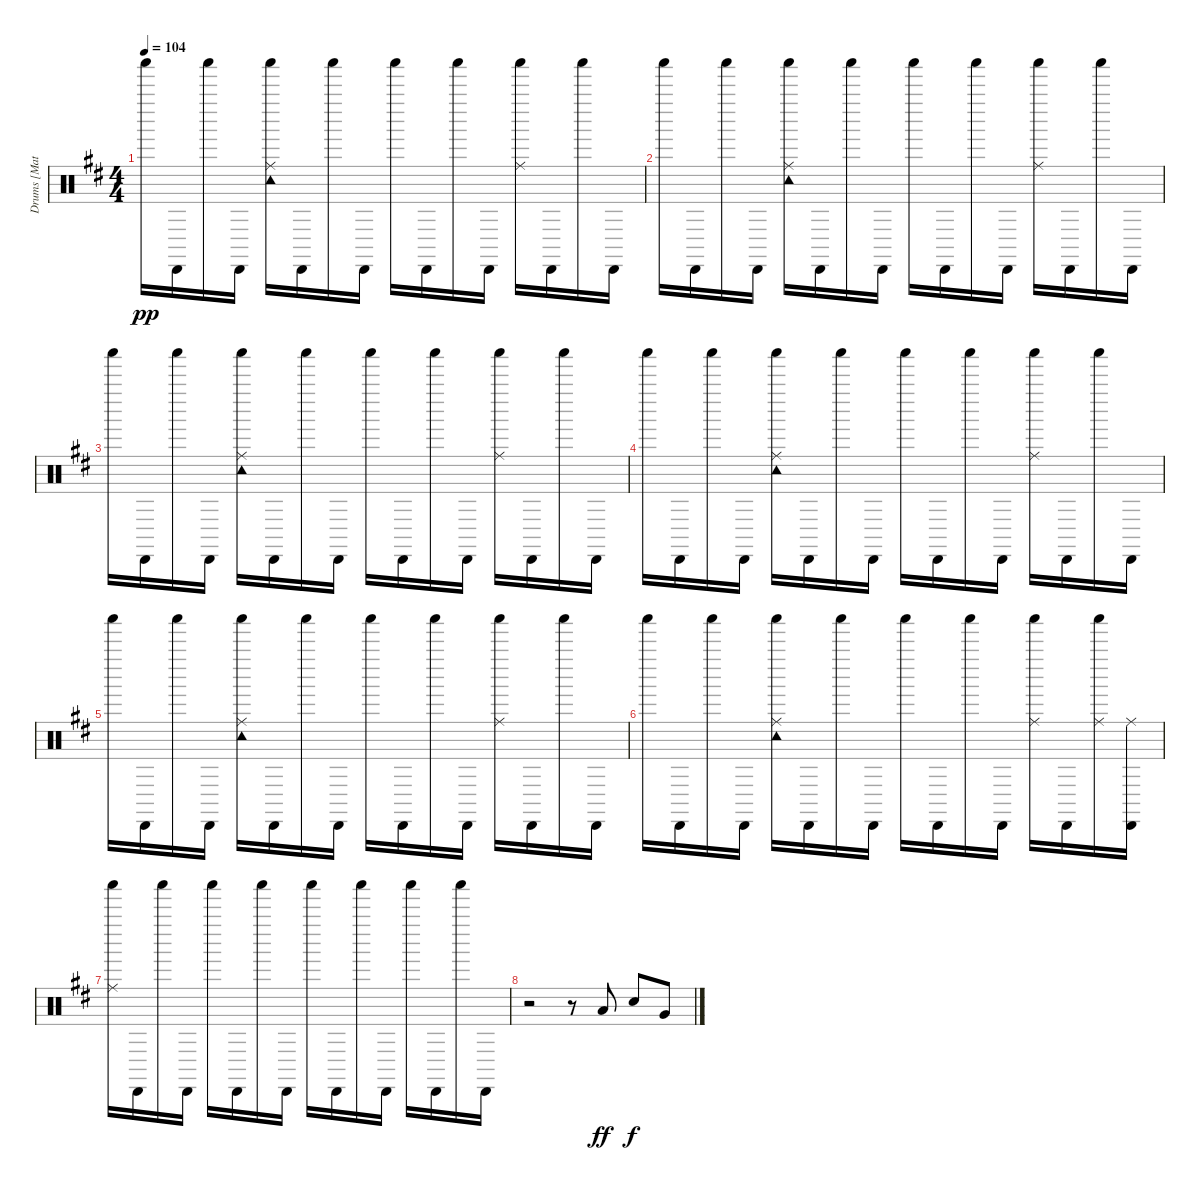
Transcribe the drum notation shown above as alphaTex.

\track ("Drums [Matt]" "Drums [Mat") {instrument percussion}
\staff {score}
\articulation defaults
\ts (4 4)
\tempo 104
\clef neutral
\ks d "Shaker (hit)".16{dy pp} "Cabasa (hit)".16 "Shaker (hit)".16 "Cabasa (hit)".16
("Ride (middle)" "Tambourine (hit)" "Shaker (hit)").16 "Cabasa (hit)".16 "Shaker (hit)".16 "Cabasa (hit)".16 "Shaker (hit)".16 "Cabasa (hit)".16 "Shaker (hit)".16 "Cabasa (hit)".16 ("Ride (middle)" "Shaker (hit)").16 "Cabasa (hit)".16 "Shaker (hit)".16 "Cabasa (hit)".16 |
"Shaker (hit)".16 "Cabasa (hit)".16 "Shaker (hit)".16 "Cabasa (hit)".16 ("Ride (middle)" "Tambourine (hit)" "Shaker (hit)").16 "Cabasa (hit)".16 "Shaker (hit)".16 "Cabasa (hit)".16 "Shaker (hit)".16 "Cabasa (hit)".16 "Shaker (hit)".16 "Cabasa (hit)".16 ("Ride (middle)" "Shaker (hit)").16 "Cabasa (hit)".16 "Shaker (hit)".16 "Cabasa (hit)".16 |
"Shaker (hit)".16 "Cabasa (hit)".16 "Shaker (hit)".16 "Cabasa (hit)".16 ("Ride (middle)" "Tambourine (hit)" "Shaker (hit)").16 "Cabasa (hit)".16 "Shaker (hit)".16 "Cabasa (hit)".16 "Shaker (hit)".16 "Cabasa (hit)".16 "Shaker (hit)".16 "Cabasa (hit)".16 ("Ride (middle)" "Shaker (hit)").16 "Cabasa (hit)".16 "Shaker (hit)".16 "Cabasa (hit)".16 |
"Shaker (hit)".16 "Cabasa (hit)".16 "Shaker (hit)".16 "Cabasa (hit)".16 ("Ride (middle)" "Tambourine (hit)" "Shaker (hit)").16 "Cabasa (hit)".16 "Shaker (hit)".16 "Cabasa (hit)".16 "Shaker (hit)".16 "Cabasa (hit)".16 "Shaker (hit)".16 "Cabasa (hit)".16 ("Ride (middle)" "Shaker (hit)").16 "Cabasa (hit)".16 "Shaker (hit)".16 "Cabasa (hit)".16 |
"Shaker (hit)".16 "Cabasa (hit)".16 "Shaker (hit)".16 "Cabasa (hit)".16 ("Ride (middle)" "Tambourine (hit)" "Shaker (hit)").16 "Cabasa (hit)".16 "Shaker (hit)".16 "Cabasa (hit)".16 "Shaker (hit)".16 "Cabasa (hit)".16 "Shaker (hit)".16 "Cabasa (hit)".16 ("Ride (middle)" "Shaker (hit)").16 "Cabasa (hit)".16 "Shaker (hit)".16 "Cabasa (hit)".16 |
"Shaker (hit)".16 "Cabasa (hit)".16 "Shaker (hit)".16 "Cabasa (hit)".16 ("Ride (middle)" "Tambourine (hit)" "Shaker (hit)").16 "Cabasa (hit)".16 "Shaker (hit)".16 "Cabasa (hit)".16 "Shaker (hit)".16 "Cabasa (hit)".16 "Shaker (hit)".16 "Cabasa (hit)".16 ("Ride (middle)" "Shaker (hit)").16 "Cabasa (hit)".16 ("Ride (middle)" "Shaker (hit)").16 ("Ride (middle)" "Cabasa (hit)").16 |
("Ride (middle)" "Shaker (hit)").16{volume 7} "Cabasa (hit)".16 "Shaker (hit)".16 "Cabasa (hit)".16 "Shaker (hit)".16 "Cabasa (hit)".16 "Shaker (hit)".16 "Cabasa (hit)".16 "Shaker (hit)".16 "Cabasa (hit)".16 "Shaker (hit)".16 "Cabasa (hit)".16 "Shaker (hit)".16 "Cabasa (hit)".16 "Shaker (hit)".16 "Cabasa (hit)".16 |
r.2 r.8 "Low Tom (hit)".8{dy ff volume 14} "Snare (hit) 2".8{dy f} "Very Low Tom (hit)".8
